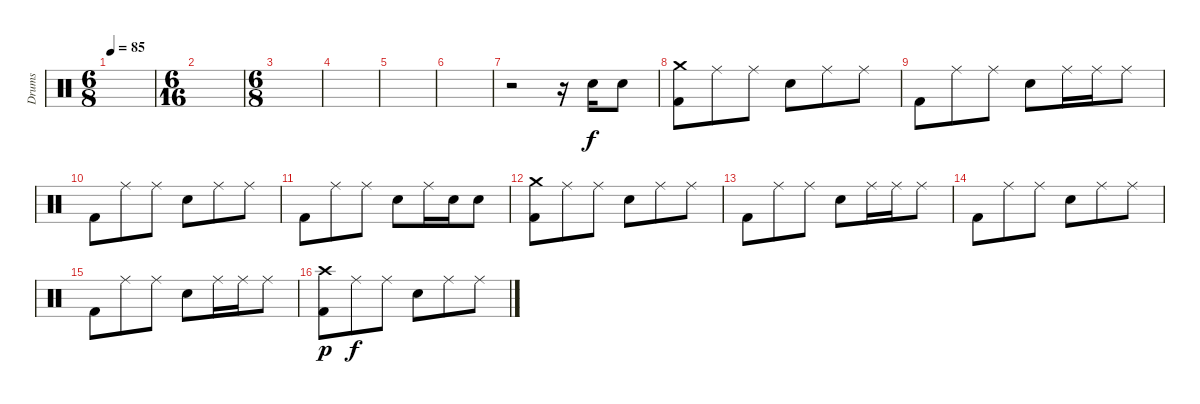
\track ("Drums" "Drums") {instrument percussion}
\staff {score}
\articulation defaults
\ts (6 8)
\tempo 85
\clef neutral
\ks c
|
\ts (6 16)
|
\ts (6 8)
|
|
|
|
r.2 r.16 "Snare (hit) 2".16 "Snare (hit) 2".8 |
("Crash medium (hit)" "Kick (hit) 2").8 "Ride (middle)".8 "Ride (middle)".8 "Snare (hit) 2".8 "Ride (middle)".8 "Ride (middle)".8 |
"Kick (hit) 2".8 "Ride (middle)".8 "Ride (middle)".8 "Snare (hit) 2".8 "Ride (middle)".16 "Ride (middle)".16 "Ride (middle)".8 |
"Kick (hit) 2".8 "Ride (middle)".8 "Ride (middle)".8 "Snare (hit) 2".8 "Ride (middle)".8 "Ride (middle)".8 |
"Kick (hit) 2".8 "Ride (middle)".8 "Ride (middle)".8 "Snare (hit) 2".8 "Ride (middle)".16 "Snare (hit) 2".16 "Snare (hit) 2".8 |
("Crash medium (hit)" "Kick (hit) 2").8 "Ride (middle)".8 "Ride (middle)".8 "Snare (hit) 2".8 "Ride (middle)".8 "Ride (middle)".8 |
"Kick (hit) 2".8 "Ride (middle)".8 "Ride (middle)".8 "Snare (hit) 2".8 "Ride (middle)".16 "Ride (middle)".16 "Ride (middle)".8 |
"Kick (hit) 2".8 "Ride (middle)".8 "Ride (middle)".8 "Snare (hit) 2".8 "Ride (middle)".8 "Ride (middle)".8 |
"Kick (hit) 2".8 "Ride (middle)".8 "Ride (middle)".8 "Snare (hit) 2".8 "Ride (middle)".16 "Ride (middle)".16 "Ride (middle)".8 |
("Crash high (hit)" "Kick (hit) 2").8{dy p} "Ride (middle)".8{dy f} "Ride (middle)".8 "Snare (hit) 2".8 "Ride (middle)".8 "Ride (middle)".8
